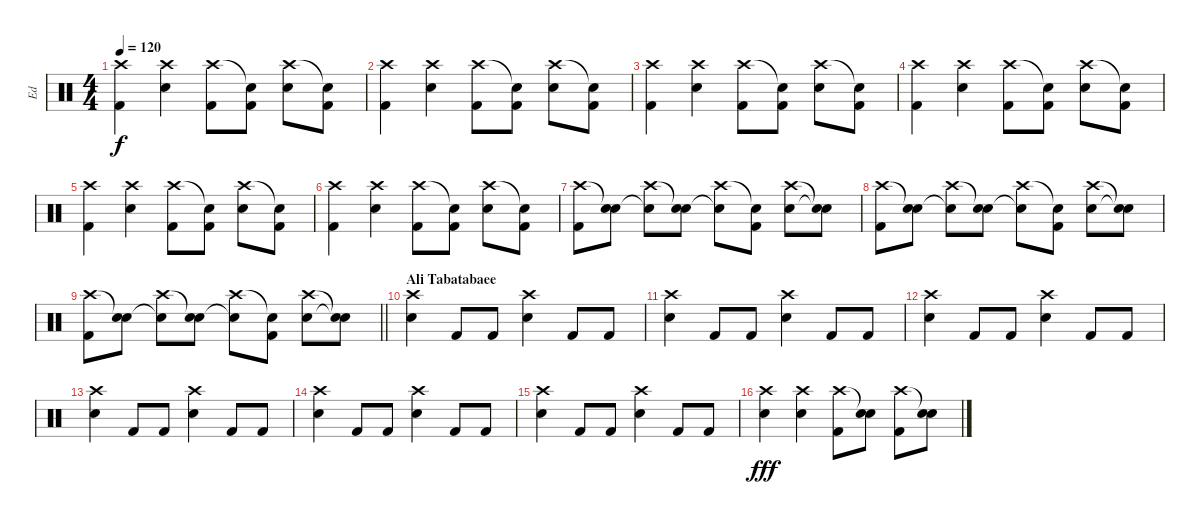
\track ("Ed" "Ed") {instrument percussion}
\staff {score}
\articulation defaults
\ts (4 4)
\tempo 120
\clef neutral
\ks c
("Crash high (hit)" "Kick (hit) 2").4{dy f} ("Crash high (hit)" "Snare (hit) 2").4 ("Crash high (hit)" "Kick (hit) 2").8 ("Snare (hit)"{t} "Kick (hit) 2").8 ("Crash high (hit)" "Snare (hit) 2").8 ("Snare (hit)"{t} "Kick (hit) 2").8 |
("Crash high (hit)" "Kick (hit) 2").4 ("Crash high (hit)" "Snare (hit) 2").4 ("Crash high (hit)" "Kick (hit) 2").8 ("Snare (hit)"{t} "Kick (hit) 2").8 ("Crash high (hit)" "Snare (hit) 2").8 ("Snare (hit)"{t} "Kick (hit) 2").8 |
("Crash high (hit)" "Kick (hit) 2").4 ("Crash high (hit)" "Snare (hit) 2").4 ("Crash high (hit)" "Kick (hit) 2").8 ("Snare (hit)"{t} "Kick (hit) 2").8 ("Crash high (hit)" "Snare (hit) 2").8 ("Snare (hit)"{t} "Kick (hit) 2").8 |
("Crash high (hit)" "Kick (hit) 2").4 ("Crash high (hit)" "Snare (hit) 2").4 ("Crash high (hit)" "Kick (hit) 2").8 ("Snare (hit)"{t} "Kick (hit) 2").8 ("Crash high (hit)" "Snare (hit) 2").8 ("Snare (hit)"{t} "Kick (hit) 2").8 |
("Crash high (hit)" "Kick (hit) 2").4 ("Crash high (hit)" "Snare (hit) 2").4 ("Crash high (hit)" "Kick (hit) 2").8 ("Snare (hit)"{t} "Kick (hit) 2").8 ("Crash high (hit)" "Snare (hit) 2").8 ("Snare (hit)"{t} "Kick (hit) 2").8 |
("Crash high (hit)" "Kick (hit) 2").4 ("Crash high (hit)" "Snare (hit) 2").4 ("Crash high (hit)" "Kick (hit) 2").8 ("Snare (hit)"{t} "Kick (hit) 2").8 ("Crash high (hit)" "Snare (hit) 2").8 ("Snare (hit)"{t} "Kick (hit) 2").8 |
("Crash high (hit)" "Kick (hit) 2").8 ("Snare (hit)"{t} "Snare (hit) 2").8 ("Crash high (hit)" "Snare (hit)"{t}).8 ("Snare (hit)"{t} "Snare (hit) 2").8 ("Crash high (hit)" "Snare (hit)"{t}).8 ("Snare (hit)"{t} "Kick (hit) 2").8 ("Crash high (hit)" "Snare (hit) 2").8 ("Snare (hit)"{t} "Snare (hit)"{t}).8 |
("Crash high (hit)" "Kick (hit) 2").8 ("Snare (hit)"{t} "Snare (hit) 2").8 ("Crash high (hit)" "Snare (hit)"{t}).8 ("Snare (hit)"{t} "Snare (hit) 2").8 ("Crash high (hit)" "Snare (hit)"{t}).8 ("Snare (hit)"{t} "Kick (hit) 2").8 ("Crash high (hit)" "Snare (hit) 2").8 ("Snare (hit)"{t} "Snare (hit)"{t}).8 |
\barLineRight lightlight
("Crash high (hit)" "Kick (hit) 2").8 ("Snare (hit)"{t} "Snare (hit) 2").8 ("Crash high (hit)" "Snare (hit)"{t}).8 ("Snare (hit)"{t} "Snare (hit) 2").8 ("Crash high (hit)" "Snare (hit)"{t}).8 ("Snare (hit)"{t} "Kick (hit) 2").8 ("Crash high (hit)" "Snare (hit) 2").8 ("Snare (hit)"{t} "Snare (hit)"{t}).8 |
\section ("" "Ali Tabatabaee")
("Crash high (hit)" "Snare (hit) 2").4 "Kick (hit) 2".8 "Kick (hit) 2".8 ("Crash high (hit)" "Snare (hit) 2").4 "Kick (hit) 2".8 "Kick (hit) 2".8 |
("Crash high (hit)" "Snare (hit) 2").4 "Kick (hit) 2".8 "Kick (hit) 2".8 ("Crash high (hit)" "Snare (hit) 2").4 "Kick (hit) 2".8 "Kick (hit) 2".8 |
("Crash high (hit)" "Snare (hit) 2").4 "Kick (hit) 2".8 "Kick (hit) 2".8 ("Crash high (hit)" "Snare (hit) 2").4 "Kick (hit) 2".8 "Kick (hit) 2".8 |
("Crash high (hit)" "Snare (hit) 2").4 "Kick (hit) 2".8 "Kick (hit) 2".8 ("Crash high (hit)" "Snare (hit) 2").4 "Kick (hit) 2".8 "Kick (hit) 2".8 |
("Crash high (hit)" "Snare (hit) 2").4 "Kick (hit) 2".8 "Kick (hit) 2".8 ("Crash high (hit)" "Snare (hit) 2").4 "Kick (hit) 2".8 "Kick (hit) 2".8 |
("Crash high (hit)" "Snare (hit) 2").4 "Kick (hit) 2".8 "Kick (hit) 2".8 ("Crash high (hit)" "Snare (hit) 2").4 "Kick (hit) 2".8 "Kick (hit) 2".8 |
("Crash high (hit)" "Snare (hit) 2").4{dy fff} ("Crash high (hit)" "Snare (hit) 2").4 ("Crash high (hit)" "Kick (hit) 2").8 ("Snare (hit)"{t} "Snare (hit) 2").8 ("Crash high (hit)" "Kick (hit) 2").8 ("Snare (hit)"{t} "Snare (hit) 2").8
